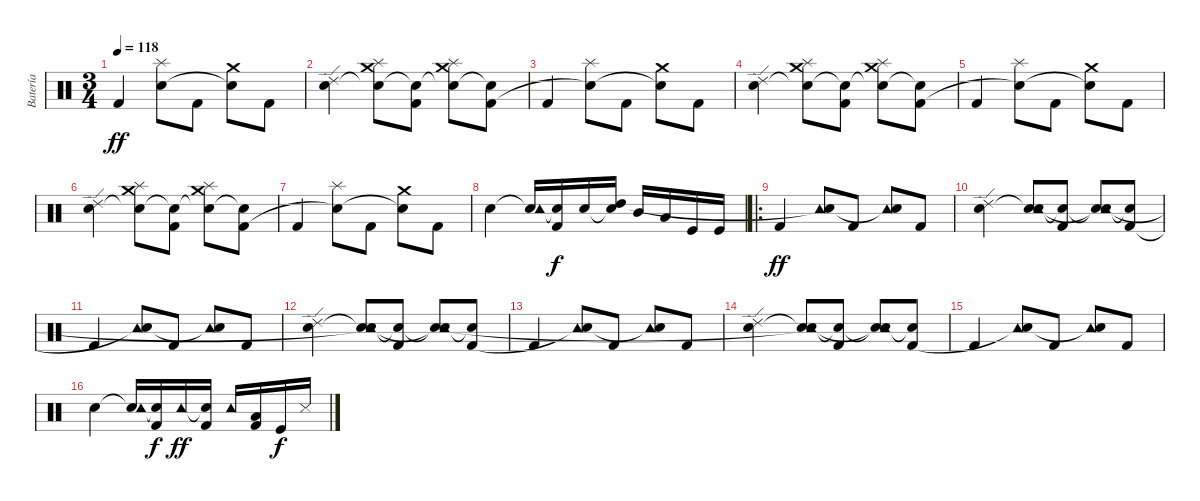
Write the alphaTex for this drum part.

\track ("Batería" "Batería") {instrument percussion}
\staff {score}
\articulation defaults
\ts (3 4)
\tempo 118
\clef neutral
\ks c "Kick (hit) 2".4{dy ff volume 16}
("Splash (hit)" "Snare (hit)"{t}).8 "Kick (hit) 2".8 ("Crash medium (hit)" "Snare (hit)"{t}).8 "Kick (hit) 2".8 |
("Snare (hit) 2" "Ride (edge) 2").4 ("Snare (hit)"{t} "Splash (hit)" "Crash medium (hit)").8 ("Snare (hit)"{t} "Kick (hit) 2").8 ("Snare (hit)"{t} "Crash medium (hit)" "Splash (hit)").8 ("Snare (hit)"{t} "Kick (hit) 2").8 |
"Kick (hit) 2".4{volume 16} ("Splash (hit)" "Snare (hit)"{t}).8 "Kick (hit) 2".8 ("Crash medium (hit)" "Snare (hit)"{t}).8 "Kick (hit) 2".8 |
("Snare (hit) 2" "Ride (edge) 2").4 ("Snare (hit)"{t} "Splash (hit)" "Crash medium (hit)").8 ("Snare (hit)"{t} "Kick (hit) 2").8 ("Snare (hit)"{t} "Crash medium (hit)" "Splash (hit)").8 ("Snare (hit)"{t} "Kick (hit) 2").8 |
"Kick (hit) 2".4{volume 16} ("Splash (hit)" "Snare (hit)"{t}).8 "Kick (hit) 2".8 ("Crash medium (hit)" "Snare (hit)"{t}).8 "Kick (hit) 2".8 |
("Snare (hit) 2" "Ride (edge) 2").4 ("Snare (hit)"{t} "Splash (hit)" "Crash medium (hit)").8 ("Snare (hit)"{t} "Kick (hit) 2").8 ("Snare (hit)"{t} "Crash medium (hit)" "Splash (hit)").8 ("Snare (hit)"{t} "Kick (hit) 2").8 |
"Kick (hit) 2".4 ("Splash (hit)" "Snare (hit)"{t}).8 "Kick (hit) 2".8 ("Crash medium (hit)" "Snare (hit)"{t}).8 "Kick (hit) 2".8 |
"Snare (hit) 2".4 ("Snare (hit)"{t} "Tambourine (hit)").16 ("Snare (hit)"{t} "Kick (hit) 2").16{dy f} "Snare (hit) 2".16 ("Snare (hit)"{t} "High Tom (hit)").16 "Mid Tom (hit)".16 "Low Tom (hit)".16 "Kick (hit)".16 "Kick (hit)".16 |
\ro "Kick (hit) 2".4{dy ff volume 16}
("Tambourine (hit)" "Snare (hit)"{t}).8 "Kick (hit) 2".8 ("Tambourine (hit)" "Snare (hit)"{t}).8 "Kick (hit) 2".8 |
("Snare (hit) 2" "Ride (edge) 2").4 ("Snare (hit)"{t} "Tambourine (hit)" "Snare (hit)").8 ("Snare (hit)"{t} "Kick (hit) 2").8 ("Snare (hit)"{t} "Tambourine (hit)" "Snare (hit)"{t}).8 ("Snare (hit)"{t} "Kick (hit) 2").8 |
"Kick (hit) 2".4 ("Tambourine (hit)" "Snare (hit)"{t}).8 "Kick (hit) 2".8 ("Tambourine (hit)" "Snare (hit)"{t}).8 "Kick (hit) 2".8 |
("Snare (hit) 2" "Ride (edge) 2").4 ("Snare (hit)"{t} "Tambourine (hit)" "Snare (hit)"{t}).8 ("Snare (hit)"{t} "Kick (hit) 2").8 ("Snare (hit)"{t} "Tambourine (hit)" "Snare (hit)"{t}).8 ("Snare (hit)"{t} "Kick (hit) 2").8 |
"Kick (hit) 2".4 ("Tambourine (hit)" "Snare (hit)"{t}).8 "Kick (hit) 2".8 ("Tambourine (hit)" "Snare (hit)"{t}).8 "Kick (hit) 2".8 |
("Snare (hit) 2" "Ride (edge) 2").4 ("Snare (hit)"{t} "Tambourine (hit)" "Snare (hit)"{t}).8 ("Snare (hit)"{t} "Kick (hit) 2").8 ("Snare (hit)"{t} "Tambourine (hit)" "Snare (hit)"{t}).8 ("Snare (hit)"{t} "Kick (hit) 2").8 |
"Kick (hit) 2".4 ("Tambourine (hit)" "Snare (hit)"{t}).8 "Kick (hit) 2".8 ("Tambourine (hit)" "Snare (hit)"{t}).8 "Kick (hit) 2".8 |
"Snare (hit) 2".4 ("Snare (hit)"{t} "Tambourine (hit)").16 ("Snare (hit)"{t} "Kick (hit) 2").16{dy f} "Tambourine (hit)".16{dy ff} ("Snare (hit)"{t} "Kick (hit) 2").16 "Tambourine (hit)".16 ("Low Tom (hit)" "Kick (hit) 2").16 "Kick (hit)".16{dy f} "Snare (side stick) 3".16
